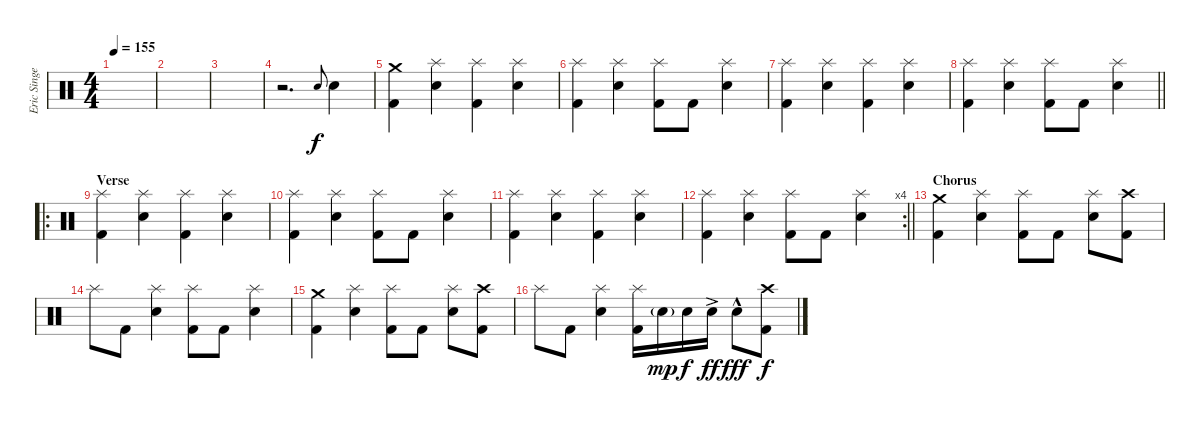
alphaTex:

\track ("Eric Singer" "Eric Singe") {instrument percussion}
\staff {score}
\articulation defaults
\ts (4 4)
\tempo 155
\clef neutral
\ks c
|
|
|
r.2{d} "Snare (hit) 2".8{gr onbeat} "Snare (hit) 2".4 |
("Crash medium (hit)" "Kick (hit) 2").4 ("Splash (hit)" "Snare (hit) 2").4 ("Splash (hit)" "Kick (hit) 2").4 ("Splash (hit)" "Snare (hit) 2").4 |
("Splash (hit)" "Kick (hit) 2").4 ("Splash (hit)" "Snare (hit) 2").4 ("Splash (hit)" "Kick (hit) 2").8 "Kick (hit) 2".8 ("Splash (hit)" "Snare (hit) 2").4 |
("Splash (hit)" "Kick (hit) 2").4 ("Splash (hit)" "Snare (hit) 2").4 ("Splash (hit)" "Kick (hit) 2").4 ("Splash (hit)" "Snare (hit) 2").4 |
\barLineRight lightlight
("Splash (hit)" "Kick (hit) 2").4 ("Splash (hit)" "Snare (hit) 2").4 ("Splash (hit)" "Kick (hit) 2").8 "Kick (hit) 2".8 ("Splash (hit)" "Snare (hit) 2").4 |
\ro
\section ("" "Verse")
("Splash (hit)" "Kick (hit) 2").4 ("Splash (hit)" "Snare (hit) 2").4 ("Splash (hit)" "Kick (hit) 2").4 ("Splash (hit)" "Snare (hit) 2").4 |
("Splash (hit)" "Kick (hit) 2").4 ("Splash (hit)" "Snare (hit) 2").4 ("Splash (hit)" "Kick (hit) 2").8 "Kick (hit) 2".8 ("Splash (hit)" "Snare (hit) 2").4 |
("Splash (hit)" "Kick (hit) 2").4 ("Splash (hit)" "Snare (hit) 2").4 ("Splash (hit)" "Kick (hit) 2").4 ("Splash (hit)" "Snare (hit) 2").4 |
\rc 4
\barLineRight lightlight
("Splash (hit)" "Kick (hit) 2").4 ("Splash (hit)" "Snare (hit) 2").4 ("Splash (hit)" "Kick (hit) 2").8 "Kick (hit) 2".8 ("Splash (hit)" "Snare (hit) 2").4 |
\section ("" "Chorus")
("Crash medium (hit)" "Kick (hit) 2").4 ("Splash (hit)" "Snare (hit) 2").4 ("Splash (hit)" "Kick (hit) 2").8 "Kick (hit) 2".8 ("Splash (hit)" "Snare (hit) 2").8 ("Crash high (hit)" "Kick (hit) 2").8 |
"Splash (hit)".8 "Kick (hit) 2".8 ("Splash (hit)" "Snare (hit) 2").4 ("Splash (hit)" "Kick (hit) 2").8 "Kick (hit) 2".8 ("Splash (hit)" "Snare (hit) 2").4 |
("Crash medium (hit)" "Kick (hit) 2").4 ("Splash (hit)" "Snare (hit) 2").4 ("Splash (hit)" "Kick (hit) 2").8 "Kick (hit) 2".8 ("Splash (hit)" "Snare (hit) 2").8 ("Crash high (hit)" "Kick (hit) 2").8 |
"Splash (hit)".8 "Kick (hit) 2".8 ("Splash (hit)" "Snare (hit) 2").4 ("Splash (hit)" "Kick (hit) 2").16 "Snare (hit) 2"{g}.16{dy mp} "Snare (hit) 2".16{dy f} "Snare (hit) 2"{ac}.16{dy ff} "Snare (hit) 2"{hac}.8{dy fff} ("Crash high (hit)" "Kick (hit) 2").8{dy f}
